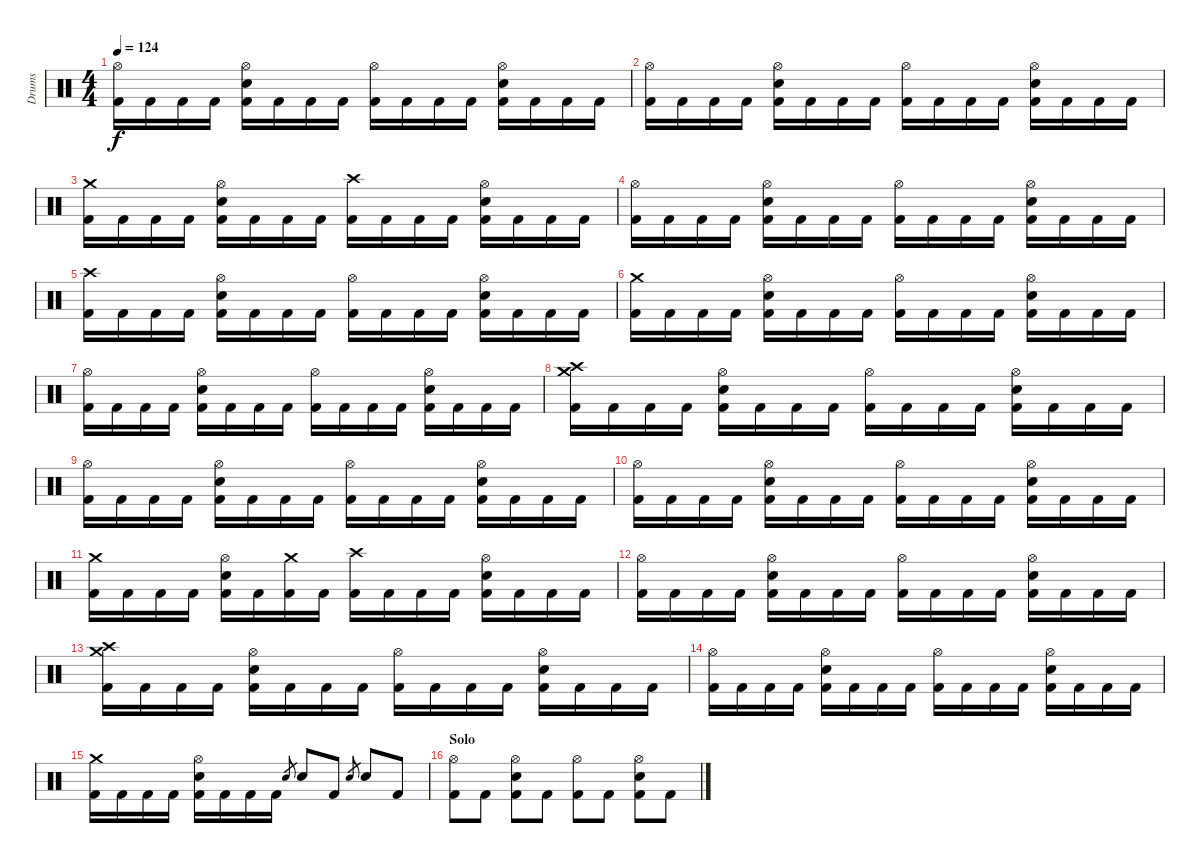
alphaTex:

\track ("Drums" "Drums") {instrument percussion}
\staff {score}
\articulation defaults
\ts (4 4)
\tempo 124
\clef neutral
\ks c
("Hi-Hat (open)" "Kick (hit) 2").16{dy f} "Kick (hit) 2".16 "Kick (hit) 2".16 "Kick (hit) 2".16 ("Hi-Hat (open)" "Electric Snare (hit)" "Kick (hit) 2").16 "Kick (hit) 2".16 "Kick (hit) 2".16 "Kick (hit) 2".16 ("Hi-Hat (open)" "Kick (hit) 2").16 "Kick (hit) 2".16 "Kick (hit) 2".16 "Kick (hit) 2".16 ("Hi-Hat (open)" "Electric Snare (hit)" "Kick (hit) 2").16 "Kick (hit) 2".16 "Kick (hit) 2".16 "Kick (hit) 2".16 |
("Hi-Hat (open)" "Kick (hit) 2").16 "Kick (hit) 2".16 "Kick (hit) 2".16 "Kick (hit) 2".16 ("Hi-Hat (open)" "Electric Snare (hit)" "Kick (hit) 2").16 "Kick (hit) 2".16 "Kick (hit) 2".16 "Kick (hit) 2".16 ("Hi-Hat (open)" "Kick (hit) 2").16 "Kick (hit) 2".16 "Kick (hit) 2".16 "Kick (hit) 2".16 ("Hi-Hat (open)" "Electric Snare (hit)" "Kick (hit) 2").16 "Kick (hit) 2".16 "Kick (hit) 2".16 "Kick (hit) 2".16 |
("Crash medium (hit)" "Kick (hit) 2").16 "Kick (hit) 2".16 "Kick (hit) 2".16 "Kick (hit) 2".16 ("Hi-Hat (open)" "Electric Snare (hit)" "Kick (hit) 2").16 "Kick (hit) 2".16 "Kick (hit) 2".16 "Kick (hit) 2".16 ("Crash high (hit)" "Kick (hit) 2").16 "Kick (hit) 2".16 "Kick (hit) 2".16 "Kick (hit) 2".16 ("Hi-Hat (open)" "Electric Snare (hit)" "Kick (hit) 2").16 "Kick (hit) 2".16 "Kick (hit) 2".16 "Kick (hit) 2".16 |
("Hi-Hat (open)" "Kick (hit) 2").16 "Kick (hit) 2".16 "Kick (hit) 2".16 "Kick (hit) 2".16 ("Hi-Hat (open)" "Electric Snare (hit)" "Kick (hit) 2").16 "Kick (hit) 2".16 "Kick (hit) 2".16 "Kick (hit) 2".16 ("Hi-Hat (open)" "Kick (hit) 2").16 "Kick (hit) 2".16 "Kick (hit) 2".16 "Kick (hit) 2".16 ("Hi-Hat (open)" "Electric Snare (hit)" "Kick (hit) 2").16 "Kick (hit) 2".16 "Kick (hit) 2".16 "Kick (hit) 2".16 |
("Crash high (hit)" "Kick (hit) 2").16 "Kick (hit) 2".16 "Kick (hit) 2".16 "Kick (hit) 2".16 ("Hi-Hat (open)" "Electric Snare (hit)" "Kick (hit) 2").16 "Kick (hit) 2".16 "Kick (hit) 2".16 "Kick (hit) 2".16 ("Hi-Hat (open)" "Kick (hit) 2").16 "Kick (hit) 2".16 "Kick (hit) 2".16 "Kick (hit) 2".16 ("Hi-Hat (open)" "Electric Snare (hit)" "Kick (hit) 2").16 "Kick (hit) 2".16 "Kick (hit) 2".16 "Kick (hit) 2".16 |
("Crash medium (hit)" "Kick (hit) 2").16 "Kick (hit) 2".16 "Kick (hit) 2".16 "Kick (hit) 2".16 ("Hi-Hat (open)" "Electric Snare (hit)" "Kick (hit) 2").16 "Kick (hit) 2".16 "Kick (hit) 2".16 "Kick (hit) 2".16 ("Hi-Hat (open)" "Kick (hit) 2").16 "Kick (hit) 2".16 "Kick (hit) 2".16 "Kick (hit) 2".16 ("Hi-Hat (open)" "Electric Snare (hit)" "Kick (hit) 2").16 "Kick (hit) 2".16 "Kick (hit) 2".16 "Kick (hit) 2".16 |
("Hi-Hat (open)" "Kick (hit) 2").16 "Kick (hit) 2".16 "Kick (hit) 2".16 "Kick (hit) 2".16 ("Hi-Hat (open)" "Electric Snare (hit)" "Kick (hit) 2").16 "Kick (hit) 2".16 "Kick (hit) 2".16 "Kick (hit) 2".16 ("Hi-Hat (open)" "Kick (hit) 2").16 "Kick (hit) 2".16 "Kick (hit) 2".16 "Kick (hit) 2".16 ("Hi-Hat (open)" "Electric Snare (hit)" "Kick (hit) 2").16 "Kick (hit) 2".16 "Kick (hit) 2".16 "Kick (hit) 2".16 |
("Crash high (hit)" "Crash medium (hit)" "Kick (hit) 2").16 "Kick (hit) 2".16 "Kick (hit) 2".16 "Kick (hit) 2".16 ("Hi-Hat (open)" "Electric Snare (hit)" "Kick (hit) 2").16 "Kick (hit) 2".16 "Kick (hit) 2".16 "Kick (hit) 2".16 ("Hi-Hat (open)" "Kick (hit) 2").16 "Kick (hit) 2".16 "Kick (hit) 2".16 "Kick (hit) 2".16 ("Hi-Hat (open)" "Electric Snare (hit)" "Kick (hit) 2").16 "Kick (hit) 2".16 "Kick (hit) 2".16 "Kick (hit) 2".16 |
("Hi-Hat (open)" "Kick (hit) 2").16 "Kick (hit) 2".16 "Kick (hit) 2".16 "Kick (hit) 2".16 ("Hi-Hat (open)" "Electric Snare (hit)" "Kick (hit) 2").16 "Kick (hit) 2".16 "Kick (hit) 2".16 "Kick (hit) 2".16 ("Hi-Hat (open)" "Kick (hit) 2").16 "Kick (hit) 2".16 "Kick (hit) 2".16 "Kick (hit) 2".16 ("Hi-Hat (open)" "Electric Snare (hit)" "Kick (hit) 2").16 "Kick (hit) 2".16 "Kick (hit) 2".16 "Kick (hit) 2".16 |
("Hi-Hat (open)" "Kick (hit) 2").16 "Kick (hit) 2".16 "Kick (hit) 2".16 "Kick (hit) 2".16 ("Hi-Hat (open)" "Electric Snare (hit)" "Kick (hit) 2").16 "Kick (hit) 2".16 "Kick (hit) 2".16 "Kick (hit) 2".16 ("Hi-Hat (open)" "Kick (hit) 2").16 "Kick (hit) 2".16 "Kick (hit) 2".16 "Kick (hit) 2".16 ("Hi-Hat (open)" "Electric Snare (hit)" "Kick (hit) 2").16 "Kick (hit) 2".16 "Kick (hit) 2".16 "Kick (hit) 2".16 |
("Crash medium (hit)" "Kick (hit) 2").16 "Kick (hit) 2".16 "Kick (hit) 2".16 "Kick (hit) 2".16 ("Hi-Hat (open)" "Electric Snare (hit)" "Kick (hit) 2").16 "Kick (hit) 2".16 ("Crash medium (hit)" "Kick (hit) 2").16 "Kick (hit) 2".16 ("Crash high (hit)" "Kick (hit) 2").16 "Kick (hit) 2".16 "Kick (hit) 2".16 "Kick (hit) 2".16 ("Hi-Hat (open)" "Electric Snare (hit)" "Kick (hit) 2").16 "Kick (hit) 2".16 "Kick (hit) 2".16 "Kick (hit) 2".16 |
("Hi-Hat (open)" "Kick (hit) 2").16 "Kick (hit) 2".16 "Kick (hit) 2".16 "Kick (hit) 2".16 ("Hi-Hat (open)" "Electric Snare (hit)" "Kick (hit) 2").16 "Kick (hit) 2".16 "Kick (hit) 2".16 "Kick (hit) 2".16 ("Hi-Hat (open)" "Kick (hit) 2").16 "Kick (hit) 2".16 "Kick (hit) 2".16 "Kick (hit) 2".16 ("Hi-Hat (open)" "Electric Snare (hit)" "Kick (hit) 2").16 "Kick (hit) 2".16 "Kick (hit) 2".16 "Kick (hit) 2".16 |
("Crash high (hit)" "Crash medium (hit)" "Kick (hit) 2").16 "Kick (hit) 2".16 "Kick (hit) 2".16 "Kick (hit) 2".16 ("Hi-Hat (open)" "Electric Snare (hit)" "Kick (hit) 2").16 "Kick (hit) 2".16 "Kick (hit) 2".16 "Kick (hit) 2".16 ("Hi-Hat (open)" "Kick (hit) 2").16 "Kick (hit) 2".16 "Kick (hit) 2".16 "Kick (hit) 2".16 ("Hi-Hat (open)" "Electric Snare (hit)" "Kick (hit) 2").16 "Kick (hit) 2".16 "Kick (hit) 2".16 "Kick (hit) 2".16 |
("Hi-Hat (open)" "Kick (hit) 2").16 "Kick (hit) 2".16 "Kick (hit) 2".16 "Kick (hit) 2".16 ("Hi-Hat (open)" "Electric Snare (hit)" "Kick (hit) 2").16 "Kick (hit) 2".16 "Kick (hit) 2".16 "Kick (hit) 2".16 ("Hi-Hat (open)" "Kick (hit) 2").16 "Kick (hit) 2".16 "Kick (hit) 2".16 "Kick (hit) 2".16 ("Hi-Hat (open)" "Electric Snare (hit)" "Kick (hit) 2").16 "Kick (hit) 2".16 "Kick (hit) 2".16 "Kick (hit) 2".16 |
("Crash medium (hit)" "Kick (hit) 2").16 "Kick (hit) 2".16 "Kick (hit) 2".16 "Kick (hit) 2".16 ("Hi-Hat (open)" "Electric Snare (hit)" "Kick (hit) 2").16 "Kick (hit) 2".16 "Kick (hit) 2".16 "Kick (hit) 2".16 "Electric Snare (hit)".8{gr} "Electric Snare (hit)".8 "Kick (hit) 2".8 "Electric Snare (hit)".8{gr} "Electric Snare (hit)".8 "Kick (hit) 2".8 |
\section ("" "Solo")
("Hi-Hat (open)" "Kick (hit) 2").8 "Kick (hit) 2".8 ("Hi-Hat (open)" "Electric Snare (hit)" "Kick (hit) 2").8 "Kick (hit) 2".8 ("Hi-Hat (open)" "Kick (hit) 2").8 "Kick (hit) 2".8 ("Hi-Hat (open)" "Electric Snare (hit)" "Kick (hit) 2").8 "Kick (hit) 2".8
